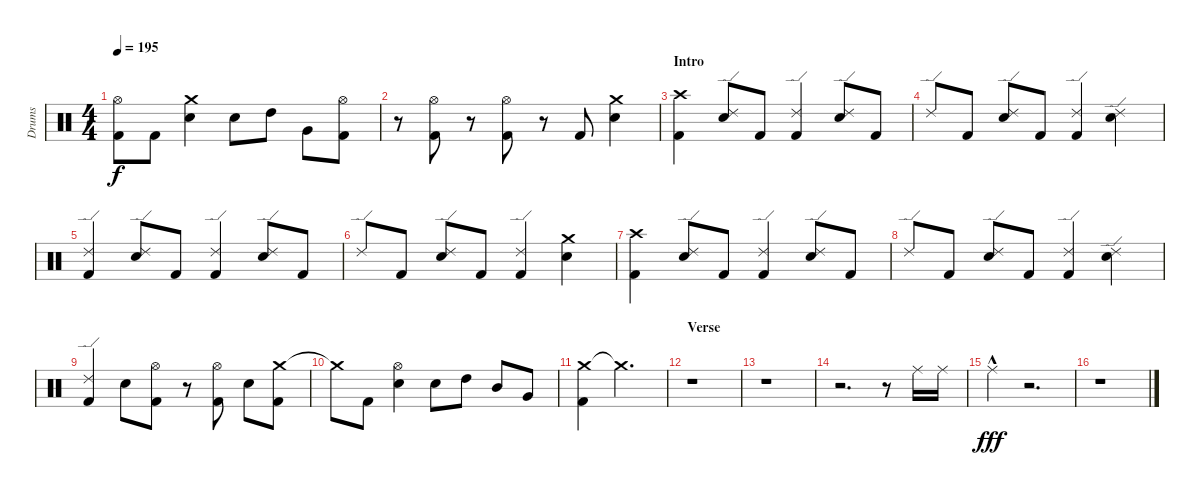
\track ("Drums" "Drums") {instrument percussion}
\staff {score}
\articulation defaults
\ts (4 4)
\tempo 195
\clef neutral
\ks c
("Hi-Hat (open)" "Kick (hit) 2").8{dy f} "Kick (hit) 2".8 ("Crash medium (hit)" "Snare (hit) 2").4 "Snare (hit) 2".8 "High Tom (hit)".8 "Very Low Tom (hit)".8 ("Hi-Hat (open)" "Kick (hit) 2").8 |
r.8 ("Hi-Hat (open)" "Kick (hit) 2").8 r.8 ("Hi-Hat (open)" "Kick (hit) 2").8 r.8 "Kick (hit) 2".8 ("Crash medium (hit)" "Snare (hit) 2").4 |
\section ("" "Intro")
("Crash high (hit)" "Kick (hit) 2").4 ("Ride (edge) 2" "Snare (hit) 2").8 "Kick (hit) 2".8 ("Ride (edge) 2" "Kick (hit) 2").4 ("Ride (edge) 2" "Snare (hit) 2").8 "Kick (hit) 2".8 |
"Ride (edge) 2".8 "Kick (hit) 2".8 ("Ride (edge) 2" "Snare (hit) 2").8 "Kick (hit) 2".8 ("Ride (edge) 2" "Kick (hit) 2").4 ("Ride (edge) 2" "Snare (hit) 2").4 |
("Ride (edge) 2" "Kick (hit) 2").4 ("Ride (edge) 2" "Snare (hit) 2").8 "Kick (hit) 2".8 ("Ride (edge) 2" "Kick (hit) 2").4 ("Ride (edge) 2" "Snare (hit) 2").8 "Kick (hit) 2".8 |
"Ride (edge) 2".8 "Kick (hit) 2".8 ("Ride (edge) 2" "Snare (hit) 2").8 "Kick (hit) 2".8 ("Ride (edge) 2" "Kick (hit) 2").4 ("Crash medium (hit)" "Snare (hit) 2").4 |
("Crash high (hit)" "Kick (hit) 2").4 ("Ride (edge) 2" "Snare (hit) 2").8 "Kick (hit) 2".8 ("Ride (edge) 2" "Kick (hit) 2").4 ("Ride (edge) 2" "Snare (hit) 2").8 "Kick (hit) 2".8 |
"Ride (edge) 2".8 "Kick (hit) 2".8 ("Ride (edge) 2" "Snare (hit) 2").8 "Kick (hit) 2".8 ("Ride (edge) 2" "Kick (hit) 2").4 ("Ride (edge) 2" "Snare (hit) 2").4 |
("Ride (edge) 2" "Kick (hit) 2").4 "Snare (hit) 2".8 ("Hi-Hat (open)" "Kick (hit) 2").8 r.8 ("Hi-Hat (open)" "Kick (hit) 2").8 "Snare (hit) 2".8 ("Crash medium (hit)" "Kick (hit) 2").8 |
"Crash medium (hit)"{t}.8 "Kick (hit) 2".8 ("Hi-Hat (open)" "Snare (hit) 2").4 "Snare (hit) 2".8 "High Tom (hit)".8 "Mid Tom (hit)".8 "Very Low Tom (hit)".8 |
("Crash medium (hit)" "Kick (hit) 2").4 "Crash medium (hit)"{t}.2{d} |
\section ("" "Verse")
r.1 |
r.1 |
r.2{d} r.8 "Ride (middle)".16 "Ride (middle)".16 |
"Ride (middle)"{hac}.4{dy fff} r.2{d} |
r.1
